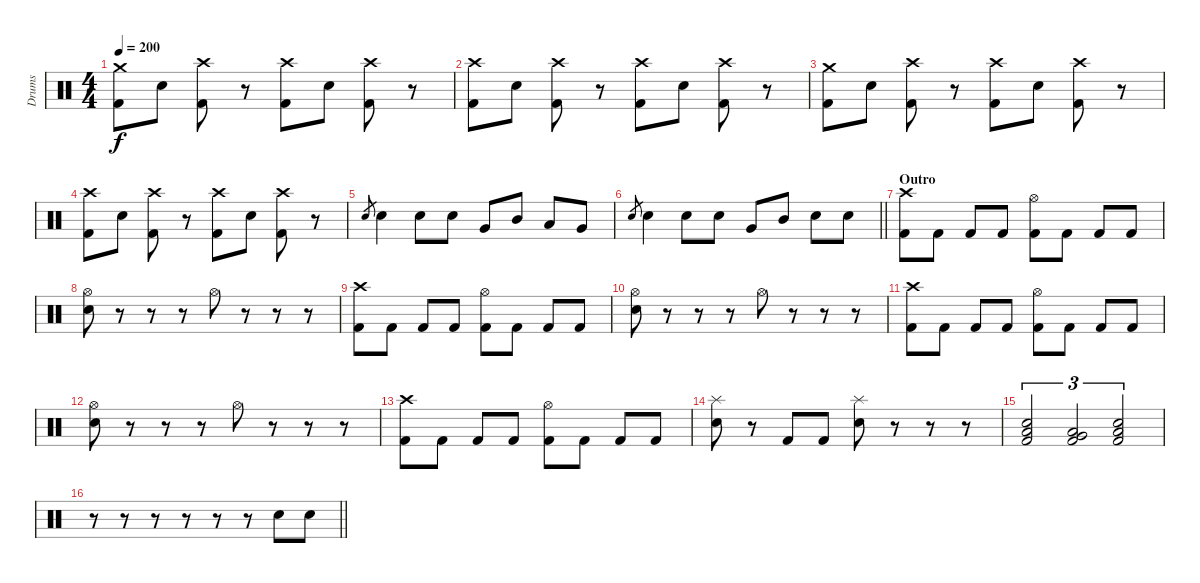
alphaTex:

\track ("Drums" "Drums") {instrument percussion}
\staff {score}
\articulation defaults
\ts (4 4)
\tempo 200
\clef neutral
\ks c
("Crash medium (hit)" "Kick (hit) 2").8{dy f} "Electric Snare (hit)".8 ("Crash high (hit)" "Kick (hit) 2").8 r.8 ("Crash high (hit)" "Kick (hit) 2").8 "Electric Snare (hit)".8 ("Crash high (hit)" "Kick (hit) 2").8 r.8 |
("Crash high (hit)" "Kick (hit) 2").8 "Electric Snare (hit)".8 ("Crash high (hit)" "Kick (hit) 2").8 r.8 ("Crash high (hit)" "Kick (hit) 2").8 "Electric Snare (hit)".8 ("Crash high (hit)" "Kick (hit) 2").8 r.8 |
("Crash medium (hit)" "Kick (hit) 2").8 "Electric Snare (hit)".8 ("Crash high (hit)" "Kick (hit) 2").8 r.8 ("Crash high (hit)" "Kick (hit) 2").8 "Electric Snare (hit)".8 ("Crash high (hit)" "Kick (hit) 2").8 r.8 |
("Crash high (hit)" "Kick (hit) 2").8 "Electric Snare (hit)".8 ("Crash high (hit)" "Kick (hit) 2").8 r.8 ("Crash high (hit)" "Kick (hit) 2").8 "Electric Snare (hit)".8 ("Crash high (hit)" "Kick (hit) 2").8 r.8 |
"Electric Snare (hit)".8{gr} "Electric Snare (hit)".4 "Electric Snare (hit)".8 "Electric Snare (hit)".8 "Very Low Tom (hit)".8 "Mid Tom (hit)".8 "Low Tom (hit)".8 "Very Low Tom (hit)".8 |
\barLineRight lightlight "Electric Snare (hit)".8{gr} "Electric Snare (hit)".4 "Electric Snare (hit)".8 "Electric Snare (hit)".8 "Very Low Tom (hit)".8 "Mid Tom (hit)".8 "Electric Snare (hit)".8 "Electric Snare (hit)".8
|
\section ("" "Outro")
("Crash high (hit)" "Kick (hit) 2").8 "Kick (hit) 2".8 "Kick (hit) 2".8 "Kick (hit) 2".8 ("Hi-Hat (open)" "Kick (hit) 2").8 "Kick (hit) 2".8 "Kick (hit) 2".8 "Kick (hit) 2".8 |
("Hi-Hat (open)" "Electric Snare (hit)").8 r.8 r.8 r.8 "Hi-Hat (open)".8 r.8 r.8 r.8 |
("Crash high (hit)" "Kick (hit) 2").8 "Kick (hit) 2".8 "Kick (hit) 2".8 "Kick (hit) 2".8 ("Hi-Hat (open)" "Kick (hit) 2").8 "Kick (hit) 2".8 "Kick (hit) 2".8 "Kick (hit) 2".8 |
("Hi-Hat (open)" "Electric Snare (hit)").8 r.8 r.8 r.8 "Hi-Hat (open)".8 r.8 r.8 r.8 |
("Crash high (hit)" "Kick (hit) 2").8 "Kick (hit) 2".8 "Kick (hit) 2".8 "Kick (hit) 2".8 ("Hi-Hat (open)" "Kick (hit) 2").8 "Kick (hit) 2".8 "Kick (hit) 2".8 "Kick (hit) 2".8 |
("Hi-Hat (open)" "Electric Snare (hit)").8 r.8 r.8 r.8 "Hi-Hat (open)".8 r.8 r.8 r.8 |
("Crash high (hit)" "Kick (hit) 2").8 "Kick (hit) 2".8 "Kick (hit) 2".8 "Kick (hit) 2".8 ("Hi-Hat (open)" "Kick (hit) 2").8 "Kick (hit) 2".8 "Kick (hit) 2".8 "Kick (hit) 2".8 |
("Splash (hit)" "Electric Snare (hit)").8 r.8 "Kick (hit) 2".8 "Kick (hit) 2".8 ("Splash (hit)" "Electric Snare (hit)").8 r.8 r.8 r.8 |
("Low Floor Tom (hit)" "Electric Snare (hit)" "Kick (hit) 2").2{tu (3 2)} ("Low Tom (hit)" "Very Low Tom (hit)" "Kick (hit) 2").2{tu (3 2)} ("Low Floor Tom (hit)" "Electric Snare (hit)" "Kick (hit) 2").2{tu (3 2)} |
\barLineRight lightlight
r.8 r.8 r.8 r.8 r.8 r.8 "Electric Snare (hit)".8 "Electric Snare (hit)".8
